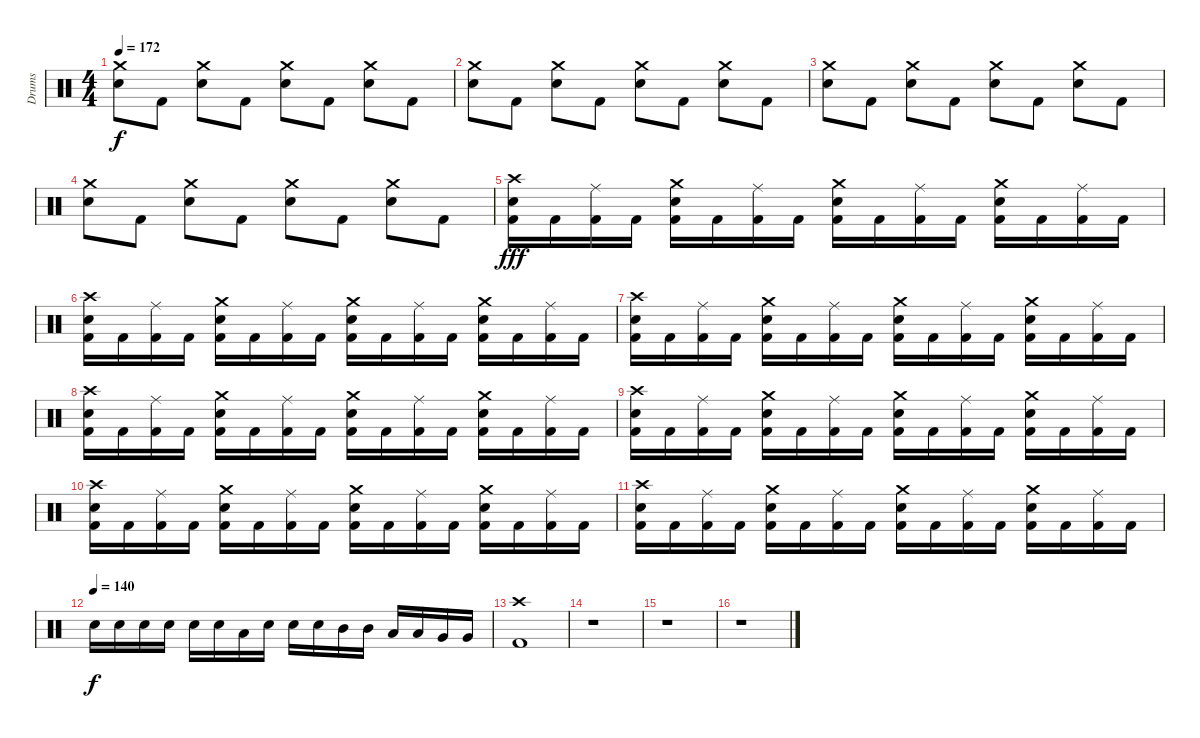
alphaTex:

\track ("Drums" "Drums") {instrument percussion}
\staff {score}
\articulation defaults
\ts (4 4)
\tempo 172
\clef neutral
\ks c
("Crash medium (hit)" "Snare (hit) 2").8{dy f} "Kick (hit) 2".8 ("Crash medium (hit)" "Snare (hit) 2").8 "Kick (hit) 2".8 ("Crash medium (hit)" "Snare (hit) 2").8 "Kick (hit) 2".8 ("Crash medium (hit)" "Snare (hit) 2").8 "Kick (hit) 2".8 |
("Crash medium (hit)" "Snare (hit) 2").8 "Kick (hit) 2".8 ("Crash medium (hit)" "Snare (hit) 2").8 "Kick (hit) 2".8 ("Crash medium (hit)" "Snare (hit) 2").8 "Kick (hit) 2".8 ("Crash medium (hit)" "Snare (hit) 2").8 "Kick (hit) 2".8 |
("Crash medium (hit)" "Snare (hit) 2").8 "Kick (hit) 2".8 ("Crash medium (hit)" "Snare (hit) 2").8 "Kick (hit) 2".8 ("Crash medium (hit)" "Snare (hit) 2").8 "Kick (hit) 2".8 ("Crash medium (hit)" "Snare (hit) 2").8 "Kick (hit) 2".8 |
("Crash medium (hit)" "Snare (hit) 2").8 "Kick (hit) 2".8 ("Crash medium (hit)" "Snare (hit) 2").8 "Kick (hit) 2".8 ("Crash medium (hit)" "Snare (hit) 2").8 "Kick (hit) 2".8 ("Crash medium (hit)" "Snare (hit) 2").8 "Kick (hit) 2".8 |
("Crash high (hit)" "Snare (hit) 2" "Kick (hit) 2").16{dy fff} "Kick (hit) 2".16 ("Ride (middle)" "Kick (hit) 2").16 "Kick (hit) 2".16 ("Crash medium (hit)" "Snare (hit) 2" "Kick (hit) 2").16 "Kick (hit) 2".16 ("Ride (middle)" "Kick (hit) 2").16 "Kick (hit) 2".16 ("Crash medium (hit)" "Snare (hit) 2" "Kick (hit) 2").16 "Kick (hit) 2".16 ("Ride (middle)" "Kick (hit) 2").16 "Kick (hit) 2".16 ("Crash medium (hit)" "Snare (hit) 2" "Kick (hit) 2").16 "Kick (hit) 2".16 ("Ride (middle)" "Kick (hit) 2").16 "Kick (hit) 2".16 |
("Crash high (hit)" "Snare (hit) 2" "Kick (hit) 2").16 "Kick (hit) 2".16 ("Ride (middle)" "Kick (hit) 2").16 "Kick (hit) 2".16 ("Crash medium (hit)" "Snare (hit) 2" "Kick (hit) 2").16 "Kick (hit) 2".16 ("Ride (middle)" "Kick (hit) 2").16 "Kick (hit) 2".16 ("Crash medium (hit)" "Snare (hit) 2" "Kick (hit) 2").16 "Kick (hit) 2".16 ("Ride (middle)" "Kick (hit) 2").16 "Kick (hit) 2".16 ("Crash medium (hit)" "Snare (hit) 2" "Kick (hit) 2").16 "Kick (hit) 2".16 ("Ride (middle)" "Kick (hit) 2").16 "Kick (hit) 2".16 |
("Crash high (hit)" "Snare (hit) 2" "Kick (hit) 2").16 "Kick (hit) 2".16 ("Ride (middle)" "Kick (hit) 2").16 "Kick (hit) 2".16 ("Crash medium (hit)" "Snare (hit) 2" "Kick (hit) 2").16 "Kick (hit) 2".16 ("Ride (middle)" "Kick (hit) 2").16 "Kick (hit) 2".16 ("Crash medium (hit)" "Snare (hit) 2" "Kick (hit) 2").16 "Kick (hit) 2".16 ("Ride (middle)" "Kick (hit) 2").16 "Kick (hit) 2".16 ("Crash medium (hit)" "Snare (hit) 2" "Kick (hit) 2").16 "Kick (hit) 2".16 ("Ride (middle)" "Kick (hit) 2").16 "Kick (hit) 2".16 |
("Crash high (hit)" "Snare (hit) 2" "Kick (hit) 2").16 "Kick (hit) 2".16 ("Ride (middle)" "Kick (hit) 2").16 "Kick (hit) 2".16 ("Crash medium (hit)" "Snare (hit) 2" "Kick (hit) 2").16 "Kick (hit) 2".16 ("Ride (middle)" "Kick (hit) 2").16 "Kick (hit) 2".16 ("Crash medium (hit)" "Snare (hit) 2" "Kick (hit) 2").16 "Kick (hit) 2".16 ("Ride (middle)" "Kick (hit) 2").16 "Kick (hit) 2".16 ("Crash medium (hit)" "Snare (hit) 2" "Kick (hit) 2").16 "Kick (hit) 2".16 ("Ride (middle)" "Kick (hit) 2").16 "Kick (hit) 2".16 |
("Crash high (hit)" "Snare (hit) 2" "Kick (hit) 2").16 "Kick (hit) 2".16 ("Ride (middle)" "Kick (hit) 2").16 "Kick (hit) 2".16 ("Crash medium (hit)" "Snare (hit) 2" "Kick (hit) 2").16 "Kick (hit) 2".16 ("Ride (middle)" "Kick (hit) 2").16 "Kick (hit) 2".16 ("Crash medium (hit)" "Snare (hit) 2" "Kick (hit) 2").16 "Kick (hit) 2".16 ("Ride (middle)" "Kick (hit) 2").16 "Kick (hit) 2".16 ("Crash medium (hit)" "Snare (hit) 2" "Kick (hit) 2").16 "Kick (hit) 2".16 ("Ride (middle)" "Kick (hit) 2").16 "Kick (hit) 2".16 |
("Crash high (hit)" "Snare (hit) 2" "Kick (hit) 2").16 "Kick (hit) 2".16 ("Ride (middle)" "Kick (hit) 2").16 "Kick (hit) 2".16 ("Crash medium (hit)" "Snare (hit) 2" "Kick (hit) 2").16 "Kick (hit) 2".16 ("Ride (middle)" "Kick (hit) 2").16 "Kick (hit) 2".16 ("Crash medium (hit)" "Snare (hit) 2" "Kick (hit) 2").16 "Kick (hit) 2".16 ("Ride (middle)" "Kick (hit) 2").16 "Kick (hit) 2".16 ("Crash medium (hit)" "Snare (hit) 2" "Kick (hit) 2").16 "Kick (hit) 2".16 ("Ride (middle)" "Kick (hit) 2").16 "Kick (hit) 2".16 |
("Crash high (hit)" "Snare (hit) 2" "Kick (hit) 2").16 "Kick (hit) 2".16 ("Ride (middle)" "Kick (hit) 2").16 "Kick (hit) 2".16 ("Crash medium (hit)" "Snare (hit) 2" "Kick (hit) 2").16 "Kick (hit) 2".16 ("Ride (middle)" "Kick (hit) 2").16 "Kick (hit) 2".16 ("Crash medium (hit)" "Snare (hit) 2" "Kick (hit) 2").16 "Kick (hit) 2".16 ("Ride (middle)" "Kick (hit) 2").16 "Kick (hit) 2".16 ("Crash medium (hit)" "Snare (hit) 2" "Kick (hit) 2").16 "Kick (hit) 2".16 ("Ride (middle)" "Kick (hit) 2").16 "Kick (hit) 2".16 |
\tempo (140)
"Snare (hit) 2".16{dy f} "Snare (hit) 2".16 "Snare (hit) 2".16 "Snare (hit) 2".16 "Snare (hit) 2".16 "Snare (hit) 2".16 "Low Tom (hit)".16 "Snare (hit) 2".16 "Snare (hit) 2".16 "Snare (hit) 2".16 "Mid Tom (hit)".16 "Mid Tom (hit)".16 "Low Tom (hit)".16 "Low Tom (hit)".16 "Very Low Tom (hit)".16 "Very Low Tom (hit)".16 |
("Crash high (hit)" "Kick (hit) 2").1 |
r.1 |
r.1 |
r.1
